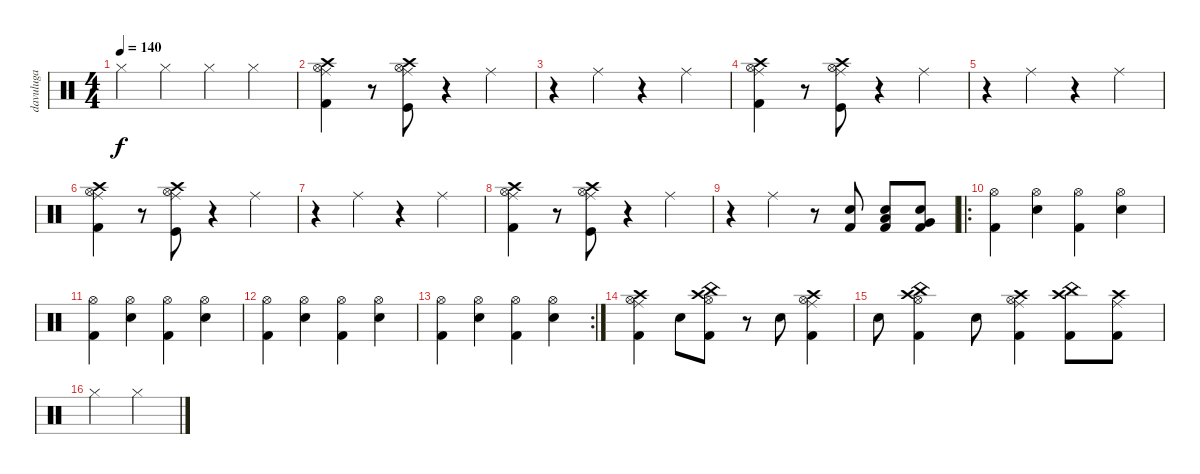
\track ("davuluga" "davuluga") {instrument percussion}
\staff {score}
\articulation defaults
\ts (4 4)
\tempo 140
\clef neutral
\ks c "Hi-Hat (closed)".4{dy f} "Hi-Hat (closed)".4 "Hi-Hat (closed)".4 "Hi-Hat (closed)".4
|
("Ride (middle)" "Crash high (hit)" "Hi-Hat (open)" "Kick (hit) 2").4 r.8 ("Ride (middle)" "Crash high (hit)" "Hi-Hat (open)" "Kick (hit)").8 r.4 "Ride (middle)".4 |
r.4 "Ride (middle)".4 r.4 "Ride (middle)".4 |
("Ride (middle)" "Crash high (hit)" "Hi-Hat (open)" "Kick (hit) 2").4 r.8 ("Ride (middle)" "Crash high (hit)" "Hi-Hat (open)" "Kick (hit)").8 r.4 "Ride (middle)".4 |
r.4 "Ride (middle)".4 r.4 "Ride (middle)".4 |
("Ride (middle)" "Crash high (hit)" "Hi-Hat (open)" "Kick (hit) 2").4 r.8 ("Ride (middle)" "Crash high (hit)" "Hi-Hat (open)" "Kick (hit)").8 r.4 "Ride (middle)".4 |
r.4 "Ride (middle)".4 r.4 "Ride (middle)".4 |
("Ride (middle)" "Crash high (hit)" "Hi-Hat (open)" "Kick (hit) 2").4 r.8 ("Ride (middle)" "Crash high (hit)" "Hi-Hat (open)" "Kick (hit)").8 r.4 "Ride (middle)".4 |
r.4 "Ride (middle)".4 r.8 ("Electric Snare (hit)" "Kick (hit) 2").8 ("Electric Snare (hit)" "Low Tom (hit)" "Kick (hit) 2").8 ("Electric Snare (hit)" "Very Low Tom (hit)" "Kick (hit) 2").8 |
\ro
("Hi-Hat (open)" "Kick (hit) 2").4 ("Hi-Hat (open)" "Electric Snare (hit)").4 ("Hi-Hat (open)" "Kick (hit) 2").4 ("Hi-Hat (open)" "Electric Snare (hit)").4 |
("Hi-Hat (open)" "Kick (hit) 2").4 ("Hi-Hat (open)" "Electric Snare (hit)").4 ("Hi-Hat (open)" "Kick (hit) 2").4 ("Hi-Hat (open)" "Electric Snare (hit)").4 |
("Hi-Hat (open)" "Kick (hit) 2").4 ("Hi-Hat (open)" "Electric Snare (hit)").4 ("Hi-Hat (open)" "Kick (hit) 2").4 ("Hi-Hat (open)" "Electric Snare (hit)").4 |
\rc 2
("Hi-Hat (open)" "Kick (hit) 2").4 ("Hi-Hat (open)" "Electric Snare (hit)").4 ("Hi-Hat (open)" "Kick (hit) 2").4 ("Hi-Hat (open)" "Electric Snare (hit)").4 |
("Ride (middle)" "Crash high (hit)" "Hi-Hat (open)" "Kick (hit) 2").4 "Electric Snare (hit)".8 ("China (hit)" "Crash high (hit)" "Hi-Hat (open)" "Kick (hit) 2").8 r.8 "Electric Snare (hit)".8 ("Ride (middle)" "Crash high (hit)" "Hi-Hat (open)" "Kick (hit) 2").4 |
"Electric Snare (hit)".8 ("China (hit)" "Crash high (hit)" "Hi-Hat (open)" "Kick (hit) 2").4 "Electric Snare (hit)".8 ("Ride (middle)" "Crash high (hit)" "Hi-Hat (open)" "Kick (hit) 2").4 ("China (hit)" "Crash high (hit)" "Kick (hit) 2").8 ("Ride (middle)" "Crash high (hit)" "Kick (hit) 2").8 |
"Hi-Hat (closed)".2 "Hi-Hat (closed)".2
